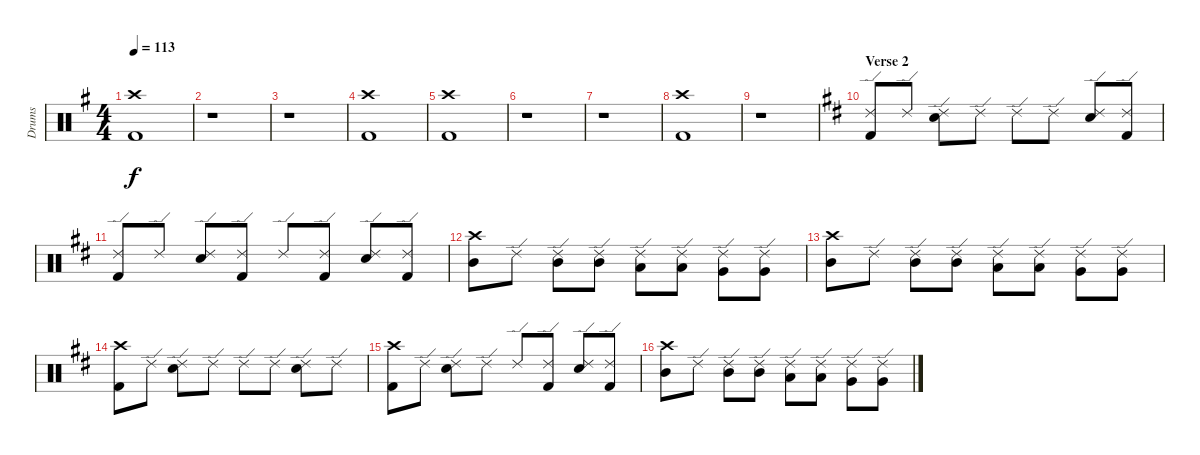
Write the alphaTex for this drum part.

\track ("Drums" "Drums") {instrument percussion}
\staff {score}
\articulation defaults
\ts (4 4)
\tempo 113
\clef neutral
\ks g
("Crash high (hit)" "Kick (hit) 2").1{dy f} |
r.1 |
r.1 |
("Crash high (hit)" "Kick (hit) 2").1 |
("Crash high (hit)" "Kick (hit) 2").1 |
r.1 |
r.1 |
("Crash high (hit)" "Kick (hit) 2").1 |
r.1 |
\section ("" "Verse 2")
\ks d
("Ride (edge) 2" "Kick (hit) 2").8 "Ride (edge) 2".8 ("Ride (edge) 2" "Electric Snare (hit)").8 "Ride (edge) 2".8 "Ride (edge) 2".8 "Ride (edge) 2".8 ("Ride (edge) 2" "Electric Snare (hit)").8 ("Ride (edge) 2" "Kick (hit) 2").8 |
("Ride (edge) 2" "Kick (hit) 2").8 "Ride (edge) 2".8 ("Ride (edge) 2" "Electric Snare (hit)").8 ("Ride (edge) 2" "Kick (hit) 2").8 "Ride (edge) 2".8 ("Ride (edge) 2" "Kick (hit) 2").8 ("Ride (edge) 2" "Electric Snare (hit)").8 ("Ride (edge) 2" "Kick (hit) 2").8 |
("Crash high (hit)" "Mid Tom (hit)").8 "Ride (edge) 2".8 ("Ride (edge) 2" "Mid Tom (hit)").8 ("Ride (edge) 2" "Mid Tom (hit)").8 ("Ride (edge) 2" "Low Tom (hit)").8 ("Ride (edge) 2" "Low Tom (hit)").8 ("Ride (edge) 2" "Very Low Tom (hit)").8 ("Ride (edge) 2" "Very Low Tom (hit)").8 |
("Crash high (hit)" "Mid Tom (hit)").8 "Ride (edge) 2".8 ("Ride (edge) 2" "Mid Tom (hit)").8 ("Ride (edge) 2" "Mid Tom (hit)").8 ("Ride (edge) 2" "Low Tom (hit)").8 ("Ride (edge) 2" "Low Tom (hit)").8 ("Ride (edge) 2" "Very Low Tom (hit)").8 ("Ride (edge) 2" "Very Low Tom (hit)").8 |
("Crash high (hit)" "Kick (hit) 2").8 "Ride (edge) 2".8 ("Ride (edge) 2" "Electric Snare (hit)").8 "Ride (edge) 2".8 "Ride (edge) 2".8 "Ride (edge) 2".8 ("Ride (edge) 2" "Electric Snare (hit)").8 "Ride (edge) 2".8 |
("Crash high (hit)" "Kick (hit) 2").8 "Ride (edge) 2".8 ("Ride (edge) 2" "Electric Snare (hit)").8 "Ride (edge) 2".8 "Ride (edge) 2".8 ("Ride (edge) 2" "Kick (hit) 2").8 ("Ride (edge) 2" "Electric Snare (hit)").8 ("Ride (edge) 2" "Kick (hit) 2").8 |
("Crash high (hit)" "Mid Tom (hit)").8 "Ride (edge) 2".8 ("Ride (edge) 2" "Mid Tom (hit)").8 ("Ride (edge) 2" "Mid Tom (hit)").8 ("Ride (edge) 2" "Low Tom (hit)").8 ("Ride (edge) 2" "Low Tom (hit)").8 ("Ride (edge) 2" "Very Low Tom (hit)").8 ("Ride (edge) 2" "Very Low Tom (hit)").8
